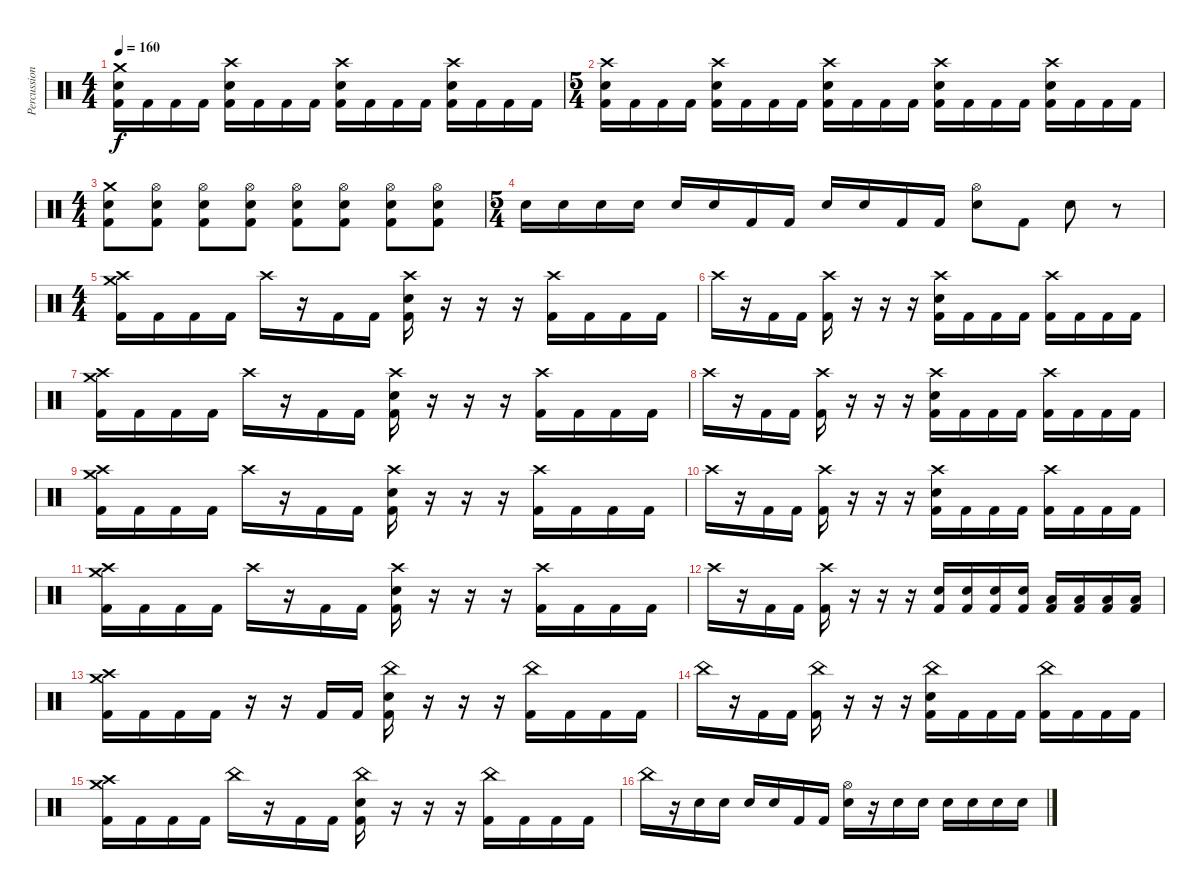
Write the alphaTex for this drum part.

\track ("Percussion" "Percussion") {instrument percussion}
\staff {score}
\articulation defaults
\ts (4 4)
\tempo 160
\clef neutral
\ks c
("Crash medium (hit)" "Electric Snare (hit)" "Kick (hit) 2").16{dy f} "Kick (hit) 2".16 "Kick (hit) 2".16 "Kick (hit) 2".16 ("Crash high (hit)" "Electric Snare (hit)" "Kick (hit) 2").16 "Kick (hit) 2".16 "Kick (hit) 2".16 "Kick (hit) 2".16 ("Crash high (hit)" "Electric Snare (hit)" "Kick (hit) 2").16 "Kick (hit) 2".16 "Kick (hit) 2".16 "Kick (hit) 2".16 ("Crash high (hit)" "Electric Snare (hit)" "Kick (hit) 2").16 "Kick (hit) 2".16 "Kick (hit) 2".16 "Kick (hit) 2".16 |
\ts (5 4)
("Crash high (hit)" "Electric Snare (hit)" "Kick (hit) 2").16 "Kick (hit) 2".16 "Kick (hit) 2".16 "Kick (hit) 2".16 ("Crash high (hit)" "Electric Snare (hit)" "Kick (hit) 2").16 "Kick (hit) 2".16 "Kick (hit) 2".16 "Kick (hit) 2".16 ("Crash high (hit)" "Electric Snare (hit)" "Kick (hit) 2").16 "Kick (hit) 2".16 "Kick (hit) 2".16 "Kick (hit) 2".16 ("Crash high (hit)" "Electric Snare (hit)" "Kick (hit) 2").16 "Kick (hit) 2".16 "Kick (hit) 2".16 "Kick (hit) 2".16 ("Crash high (hit)" "Electric Snare (hit)" "Kick (hit) 2").16 "Kick (hit) 2".16 "Kick (hit) 2".16 "Kick (hit) 2".16 |
\ts (4 4)
("Crash medium (hit)" "Electric Snare (hit)" "Kick (hit) 2").8 ("Hi-Hat (open)" "Electric Snare (hit)" "Kick (hit) 2").8 ("Hi-Hat (open)" "Electric Snare (hit)" "Kick (hit) 2").8 ("Hi-Hat (open)" "Electric Snare (hit)" "Kick (hit) 2").8 ("Hi-Hat (open)" "Electric Snare (hit)" "Kick (hit) 2").8 ("Hi-Hat (open)" "Electric Snare (hit)" "Kick (hit) 2").8 ("Hi-Hat (open)" "Electric Snare (hit)" "Kick (hit) 2").8 ("Hi-Hat (open)" "Electric Snare (hit)" "Kick (hit) 2").8 |
\ts (5 4)
"Electric Snare (hit)".16 "Electric Snare (hit)".16 "Electric Snare (hit)".16 "Electric Snare (hit)".16 "Electric Snare (hit)".16 "Electric Snare (hit)".16 "Kick (hit) 2".16 "Kick (hit) 2".16 "Electric Snare (hit)".16 "Electric Snare (hit)".16 "Kick (hit) 2".16 "Kick (hit) 2".16 ("Hi-Hat (open)" "Electric Snare (hit)").8 "Kick (hit) 2".8 "Electric Snare (hit)".8 r.8 |
\ts (4 4)
("Crash medium (hit)" "Crash high (hit)" "Kick (hit) 2").16 "Kick (hit) 2".16 "Kick (hit) 2".16 "Kick (hit) 2".16 "Crash high (hit)".16 r.16 "Kick (hit) 2".16 "Kick (hit) 2".16 ("Crash high (hit)" "Electric Snare (hit)" "Kick (hit) 2").16 r.16 r.16 r.16 ("Crash high (hit)" "Kick (hit) 2").16 "Kick (hit) 2".16 "Kick (hit) 2".16 "Kick (hit) 2".16 |
"Crash high (hit)".16 r.16 "Kick (hit) 2".16 "Kick (hit) 2".16 ("Crash high (hit)" "Kick (hit) 2").16 r.16 r.16 r.16 ("Crash high (hit)" "Electric Snare (hit)" "Kick (hit) 2").16 "Kick (hit) 2".16 "Kick (hit) 2".16 "Kick (hit) 2".16 ("Crash high (hit)" "Kick (hit) 2").16 "Kick (hit) 2".16 "Kick (hit) 2".16 "Kick (hit) 2".16 |
("Crash medium (hit)" "Crash high (hit)" "Kick (hit) 2").16 "Kick (hit) 2".16 "Kick (hit) 2".16 "Kick (hit) 2".16 "Crash high (hit)".16 r.16 "Kick (hit) 2".16 "Kick (hit) 2".16 ("Crash high (hit)" "Electric Snare (hit)" "Kick (hit) 2").16 r.16 r.16 r.16 ("Crash high (hit)" "Kick (hit) 2").16 "Kick (hit) 2".16 "Kick (hit) 2".16 "Kick (hit) 2".16 |
"Crash high (hit)".16 r.16 "Kick (hit) 2".16 "Kick (hit) 2".16 ("Crash high (hit)" "Kick (hit) 2").16 r.16 r.16 r.16 ("Crash high (hit)" "Electric Snare (hit)" "Kick (hit) 2").16 "Kick (hit) 2".16 "Kick (hit) 2".16 "Kick (hit) 2".16 ("Crash high (hit)" "Kick (hit) 2").16 "Kick (hit) 2".16 "Kick (hit) 2".16 "Kick (hit) 2".16 |
("Crash medium (hit)" "Crash high (hit)" "Kick (hit) 2").16 "Kick (hit) 2".16 "Kick (hit) 2".16 "Kick (hit) 2".16 "Crash high (hit)".16 r.16 "Kick (hit) 2".16 "Kick (hit) 2".16 ("Crash high (hit)" "Electric Snare (hit)" "Kick (hit) 2").16 r.16 r.16 r.16 ("Crash high (hit)" "Kick (hit) 2").16 "Kick (hit) 2".16 "Kick (hit) 2".16 "Kick (hit) 2".16 |
"Crash high (hit)".16 r.16 "Kick (hit) 2".16 "Kick (hit) 2".16 ("Crash high (hit)" "Kick (hit) 2").16 r.16 r.16 r.16 ("Crash high (hit)" "Electric Snare (hit)" "Kick (hit) 2").16 "Kick (hit) 2".16 "Kick (hit) 2".16 "Kick (hit) 2".16 ("Crash high (hit)" "Kick (hit) 2").16 "Kick (hit) 2".16 "Kick (hit) 2".16 "Kick (hit) 2".16 |
("Crash medium (hit)" "Crash high (hit)" "Kick (hit) 2").16 "Kick (hit) 2".16 "Kick (hit) 2".16 "Kick (hit) 2".16 "Crash high (hit)".16 r.16 "Kick (hit) 2".16 "Kick (hit) 2".16 ("Crash high (hit)" "Electric Snare (hit)" "Kick (hit) 2").16 r.16 r.16 r.16 ("Crash high (hit)" "Kick (hit) 2").16 "Kick (hit) 2".16 "Kick (hit) 2".16 "Kick (hit) 2".16 |
"Crash high (hit)".16 r.16 "Kick (hit) 2".16 "Kick (hit) 2".16 ("Crash high (hit)" "Kick (hit) 2").16 r.16 r.16 r.16 ("Electric Snare (hit)" "Kick (hit) 2").16 ("Electric Snare (hit)" "Kick (hit) 2").16 ("Electric Snare (hit)" "Kick (hit) 2").16 ("Electric Snare (hit)" "Kick (hit) 2").16 ("Low Tom (hit)" "Kick (hit) 2").16 ("Low Tom (hit)" "Kick (hit) 2").16 ("Low Tom (hit)" "Kick (hit) 2").16 ("Low Tom (hit)" "Kick (hit) 2").16 |
("Crash medium (hit)" "Crash high (hit)" "Kick (hit) 2").16 "Kick (hit) 2".16 "Kick (hit) 2".16 "Kick (hit) 2".16 r.16 r.16 "Kick (hit) 2".16 "Kick (hit) 2".16 ("China (hit)" "Electric Snare (hit)" "Kick (hit) 2").16 r.16 r.16 r.16 ("China (hit)" "Kick (hit) 2").16 "Kick (hit) 2".16 "Kick (hit) 2".16 "Kick (hit) 2".16 |
"China (hit)".16 r.16 "Kick (hit) 2".16 "Kick (hit) 2".16 ("China (hit)" "Kick (hit) 2").16 r.16 r.16 r.16 ("China (hit)" "Electric Snare (hit)" "Kick (hit) 2").16 "Kick (hit) 2".16 "Kick (hit) 2".16 "Kick (hit) 2".16 ("China (hit)" "Kick (hit) 2").16 "Kick (hit) 2".16 "Kick (hit) 2".16 "Kick (hit) 2".16 |
("Crash medium (hit)" "Crash high (hit)" "Kick (hit) 2").16 "Kick (hit) 2".16 "Kick (hit) 2".16 "Kick (hit) 2".16 "China (hit)".16 r.16 "Kick (hit) 2".16 "Kick (hit) 2".16 ("China (hit)" "Electric Snare (hit)" "Kick (hit) 2").16 r.16 r.16 r.16 ("China (hit)" "Kick (hit) 2").16 "Kick (hit) 2".16 "Kick (hit) 2".16 "Kick (hit) 2".16 |
"China (hit)".16 r.16 "Electric Snare (hit)".16 "Electric Snare (hit)".16 "Electric Snare (hit)".16 "Electric Snare (hit)".16 "Kick (hit) 2".16 "Kick (hit) 2".16 ("Hi-Hat (open)" "Electric Snare (hit)").16 r.16 "Electric Snare (hit)".16 "Electric Snare (hit)".16 "Electric Snare (hit)".16 "Electric Snare (hit)".16 "Electric Snare (hit)".16 "Electric Snare (hit)".16
